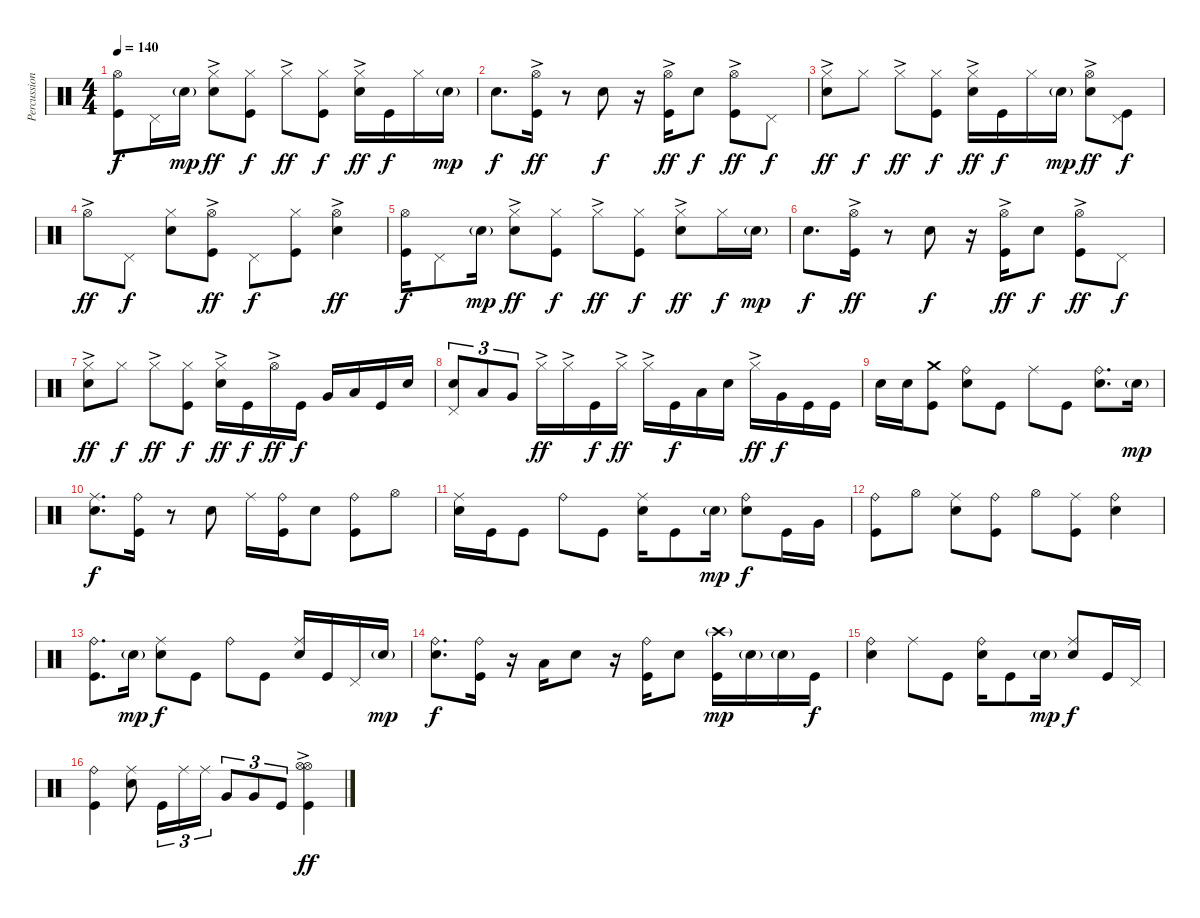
\track ("Percussion" "Percussion") {instrument percussion}
\staff {score}
\articulation defaults
\ts (4 4)
\tempo 140
\clef neutral
\ks c
("Hi-Hat (open)" "Kick (hit)").8{dy f} "Pedal Hi-Hat (hit)".16 "Electric Snare (hit)"{g}.16{dy mp} ("Hi-Hat (closed)"{ac} "Electric Snare (hit)").8{dy ff} ("Hi-Hat (closed)" "Kick (hit)").8{dy f} "Hi-Hat (closed)"{ac}.8{dy ff} ("Hi-Hat (closed)" "Kick (hit)").8{dy f} ("Hi-Hat (closed)"{ac} "Electric Snare (hit)").16{dy ff} "Kick (hit)".16{dy f} "Hi-Hat (closed)".16 "Electric Snare (hit)"{g}.16{dy mp} |
"Electric Snare (hit)".8{d dy f} ("Hi-Hat (open)"{ac} "Kick (hit)").16{dy ff} r.8 "Electric Snare (hit)".8{dy f} r.16 ("Hi-Hat (open)"{ac} "Kick (hit)").16{dy ff} "Electric Snare (hit)".8{dy f} ("Hi-Hat (open)"{ac} "Kick (hit)").8{dy ff} "Pedal Hi-Hat (hit)".8{dy f} |
("Hi-Hat (closed)"{ac} "Electric Snare (hit)").8{dy ff} "Hi-Hat (closed)".8{dy f} "Hi-Hat (closed)"{ac}.8{dy ff} ("Hi-Hat (closed)" "Kick (hit)").8{dy f} ("Hi-Hat (closed)"{ac} "Electric Snare (hit)").16{dy ff} "Kick (hit)".16{dy f} "Hi-Hat (closed)".16 "Electric Snare (hit)"{g}.16{dy mp} ("Hi-Hat (open)"{ac} "Electric Snare (hit)").8{dy ff} ("Kick (hit)" "Pedal Hi-Hat (hit)").8{dy f} |
"Hi-Hat (open)"{ac}.8{dy ff} "Pedal Hi-Hat (hit)".8{dy f} ("Hi-Hat (closed)" "Electric Snare (hit)").8 ("Hi-Hat (open)"{ac} "Kick (hit)").8{dy ff} "Pedal Hi-Hat (hit)".8{dy f} ("Hi-Hat (closed)" "Kick (hit)").8 ("Hi-Hat (open)"{ac} "Electric Snare (hit)").4{dy ff} |
("Hi-Hat (open)" "Kick (hit)").16{dy f} "Pedal Hi-Hat (hit)".8 "Electric Snare (hit)"{g}.16{dy mp} ("Hi-Hat (closed)"{ac} "Electric Snare (hit)").8{dy ff} ("Hi-Hat (closed)" "Kick (hit)").8{dy f} "Hi-Hat (closed)"{ac}.8{dy ff} ("Hi-Hat (closed)" "Kick (hit)").8{dy f} ("Hi-Hat (closed)"{ac} "Electric Snare (hit)").8{dy ff} "Hi-Hat (closed)".16{dy f} "Electric Snare (hit)"{g}.16{dy mp} |
"Electric Snare (hit)".8{d dy f} ("Hi-Hat (open)"{ac} "Kick (hit)").16{dy ff} r.8 "Electric Snare (hit)".8{dy f} r.16 ("Hi-Hat (open)"{ac} "Kick (hit)").16{dy ff} "Electric Snare (hit)".8{dy f} ("Hi-Hat (open)"{ac} "Kick (hit)").8{dy ff} "Pedal Hi-Hat (hit)".8{dy f} |
("Hi-Hat (closed)"{ac} "Electric Snare (hit)").8{dy ff} "Hi-Hat (closed)".8{dy f} "Hi-Hat (closed)"{ac}.8{dy ff} ("Hi-Hat (closed)" "Kick (hit)").8{dy f} ("Hi-Hat (closed)"{ac} "Electric Snare (hit)").16{dy ff} "Kick (hit)".16{dy f} "Hi-Hat (open)"{ac}.16{dy ff} "Kick (hit)".16{dy f} "Very Low Tom (hit)".16 "Low Tom (hit)".16 "Kick (hit)".16 "Electric Snare (hit)".16 |
("Electric Snare (hit)" "Pedal Hi-Hat (hit)").8{tu (3 2)} "Low Tom (hit)".8{tu (3 2)} "Very Low Tom (hit)".8{tu (3 2)} "Hi-Hat (closed)"{ac}.16{dy ff} "Hi-Hat (closed)"{ac}.16 "Kick (hit)".16{dy f} "Hi-Hat (closed)"{ac}.16{dy ff} "Hi-Hat (closed)"{ac}.16 "Kick (hit)".16{dy f} "Low Tom (hit)".16 "Electric Snare (hit)".16 "Hi-Hat (closed)"{ac}.16{dy ff} "Very Low Tom (hit)".16{dy f} "Kick (hit)".16 "Kick (hit)".16 |
"Electric Snare (hit)".16 "Electric Snare (hit)".16 ("Crash medium (hit)" "Kick (hit)").8 ("Ride (bell)" "Electric Snare (hit)").8 "Kick (hit)".8 "Ride (middle)".8 "Kick (hit)".8 ("Ride (bell)" "Electric Snare (hit)").8{d} "Electric Snare (hit)"{g}.16{dy mp} |
("Ride (middle)" "Electric Snare (hit)").8{d dy f} ("Ride (bell)" "Kick (hit)").16 r.8 "Electric Snare (hit)".8 "Ride (middle)".16 ("Ride (bell)" "Kick (hit)").16 "Electric Snare (hit)".8 ("Ride (bell)" "Kick (hit)").8 "Hi-Hat (open)".8 |
("Ride (middle)" "Electric Snare (hit)").16 "Kick (hit)".16 "Kick (hit)".8 "Ride (bell)".8 "Kick (hit)".8 ("Ride (middle)" "Electric Snare (hit)").16 "Kick (hit)".8 "Electric Snare (hit)"{g}.16{dy mp} ("Ride (bell)" "Electric Snare (hit)").8{dy f} "Kick (hit)".16 "Very Low Tom (hit)".16 |
("Ride (bell)" "Kick (hit)").8 "Hi-Hat (open)".8 ("Ride (middle)" "Electric Snare (hit)").8 ("Ride (bell)" "Kick (hit)").8 "Hi-Hat (open)".8 ("Ride (middle)" "Kick (hit)").8 ("Ride (bell)" "Electric Snare (hit)").4 |
("Ride (bell)" "Kick (hit)").8{d} "Electric Snare (hit)"{g}.16{dy mp} ("Ride (middle)" "Electric Snare (hit)").8{dy f} "Kick (hit)".8 "Ride (bell)".8 "Kick (hit)".8 ("Ride (middle)" "Electric Snare (hit)").16 "Kick (hit)".16 "Pedal Hi-Hat (hit)".16 "Electric Snare (hit)"{g}.16{dy mp} |
("Ride (bell)" "Electric Snare (hit)").8{d dy f} ("Ride (bell)" "Kick (hit)").16 r.16 "Low Tom (hit)".16 "Electric Snare (hit)".8 r.16 ("Ride (bell)" "Kick (hit)").16 "Electric Snare (hit)".8 ("Crash high (hit)"{g} "Kick (hit)").16{dy mp} "Electric Snare (hit)"{g}.16 "Electric Snare (hit)"{g}.16 "Kick (hit)".16{dy f} |
("Ride (bell)" "Electric Snare (hit)").4 "Ride (middle)".8 "Kick (hit)".8 ("Ride (bell)" "Electric Snare (hit)").16 "Kick (hit)".8 "Electric Snare (hit)"{g}.16{dy mp} ("Ride (middle)" "Electric Snare (hit)").8{dy f} "Kick (hit)".16 "Pedal Hi-Hat (hit)".16 |
("Ride (bell)" "Kick (hit)").4 ("Ride (middle)" "Electric Snare (hit)").8 "Kick (hit)".16{tu (3 2)} "Ride (middle)".16{tu (3 2)} "Ride (middle)".16{tu (3 2)} "Very Low Tom (hit)".8{tu (3 2)} "Very Low Tom (hit)".8{tu (3 2)} "Kick (hit)".8{tu (3 2)} ("Hi-Hat (open)"{ac} "Hi-Hat (open)" "Kick (hit)").4{dy ff}
